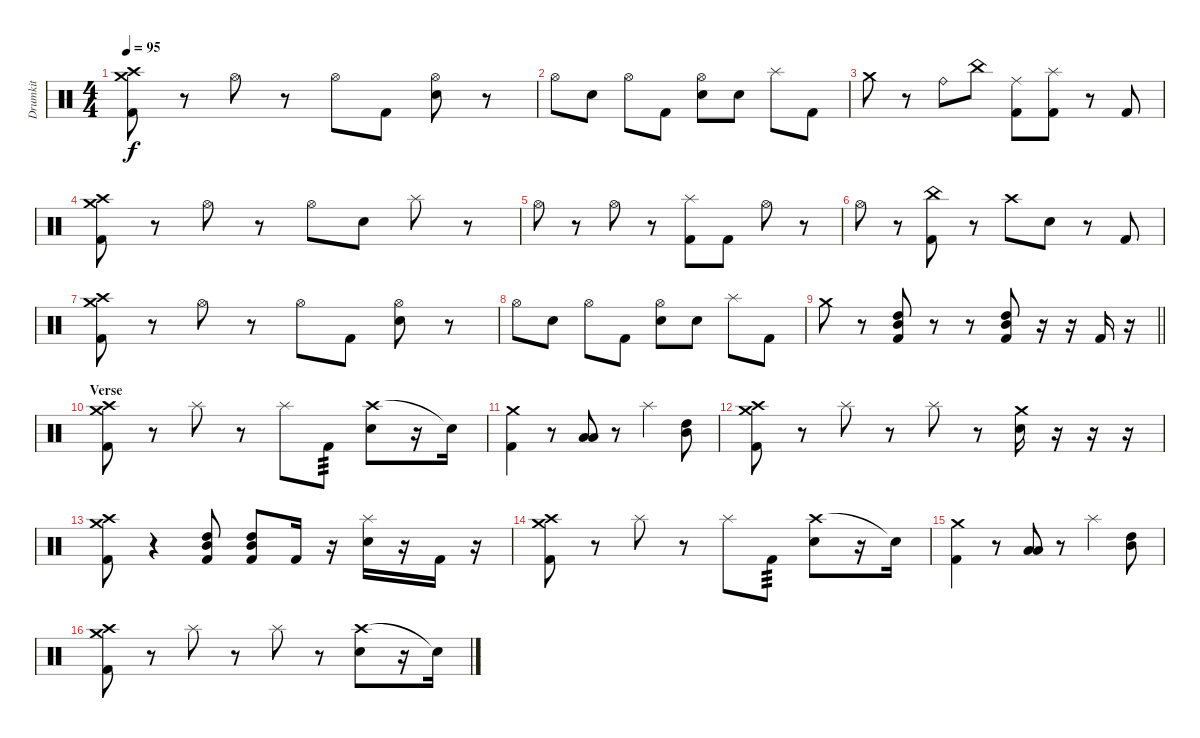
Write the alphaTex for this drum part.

\track ("Drumkit" "Drumkit") {instrument percussion}
\staff {score}
\articulation defaults
\ts (4 4)
\tempo 95
\clef neutral
\ks c
("Crash high (hit)" "Crash medium (hit)" "Kick (hit) 2").8{dy f} r.8 "Hi-Hat (open)".8 r.8 "Hi-Hat (open)".8 "Kick (hit) 2".8 ("Hi-Hat (open)" "Electric Snare (hit)").8 r.8 |
"Hi-Hat (open)".8 "Electric Snare (hit)".8 "Hi-Hat (open)".8 "Kick (hit) 2".8 ("Hi-Hat (open)" "Electric Snare (hit)").8 "Electric Snare (hit)".8 "Splash (hit)".8 "Kick (hit) 2".8 |
"Crash medium (hit)".8 r.8 "Ride (bell)".8 "China (hit)".8 ("Ride (middle)" "Kick (hit) 2").8 ("Splash (hit)" "Kick (hit) 2").8 r.8 "Kick (hit) 2".8 |
("Crash medium (hit)" "Crash high (hit)" "Kick (hit) 2").8 r.8 "Hi-Hat (open)".8 r.8 "Hi-Hat (open)".8 "Electric Snare (hit)".8 "Splash (hit)".8 r.8 |
"Hi-Hat (open)".8 r.8 "Hi-Hat (open)".8 r.8 ("Splash (hit)" "Kick (hit) 2").8 "Kick (hit) 2".8 "Hi-Hat (open)".8 r.8 |
"Hi-Hat (open)".8 r.8 ("China (hit)" "Kick (hit) 2").8 r.8 "Crash high (hit)".8 "Electric Snare (hit)".8 r.8 "Kick (hit) 2".8 |
("Crash high (hit)" "Crash medium (hit)" "Kick (hit) 2").8 r.8 "Hi-Hat (open)".8 r.8 "Hi-Hat (open)".8 "Kick (hit) 2".8 ("Hi-Hat (open)" "Electric Snare (hit)").8 r.8 |
"Hi-Hat (open)".8 "Electric Snare (hit)".8 "Hi-Hat (open)".8 "Kick (hit) 2".8 ("Hi-Hat (open)" "Electric Snare (hit)").8 "Electric Snare (hit)".8 "Splash (hit)".8 "Kick (hit) 2".8 |
\barLineRight lightlight "Crash medium (hit)".8
r.8 ("Mid Tom (hit)" "High Tom (hit)" "Kick (hit) 2").8 r.8 r.8 ("High Tom (hit)" "Mid Tom (hit)" "Kick (hit) 2").8 r.16 r.16 "Kick (hit) 2".16 r.16 |
\section ("" "Verse")
("Crash high (hit)" "Crash medium (hit)" "Kick (hit) 2").8 r.8 "Splash (hit)".8 r.8 "Splash (hit)".8 "Kick (hit) 2".8{tp 3} ("Crash high (hit)" "Electric Snare (hit)").8 r.16 "Snare (hit)"{t}.16 |
("Crash medium (hit)" "Kick (hit) 2").4 r.8 ("Low Tom (hit)" "Low Floor Tom (hit)").8 r.8 "Splash (hit)".4 ("Mid Tom (hit)" "High Tom (hit)").8 |
("Crash high (hit)" "Crash medium (hit)" "Kick (hit) 2").8 r.8 "Splash (hit)".8 r.8 "Splash (hit)".8 r.8 ("Crash medium (hit)" "Electric Snare (hit)").16 r.16 r.16 r.16 |
("Crash medium (hit)" "Crash high (hit)" "Kick (hit) 2").8 r.4 ("High Tom (hit)" "Mid Tom (hit)" "Kick (hit) 2").8 ("High Tom (hit)" "Mid Tom (hit)" "Kick (hit) 2").8 "Kick (hit) 2".16 r.16 ("Splash (hit)" "Electric Snare (hit)").16 r.16 "Kick (hit) 2".16 r.16 |
("Crash high (hit)" "Crash medium (hit)" "Kick (hit) 2").8 r.8 "Splash (hit)".8 r.8 "Splash (hit)".8 "Kick (hit) 2".8{tp 3} ("Crash high (hit)" "Electric Snare (hit)").8 r.16 "Snare (hit)"{t}.16 |
("Crash medium (hit)" "Kick (hit) 2").4 r.8 ("Low Tom (hit)" "Low Floor Tom (hit)").8 r.8 "Splash (hit)".4 ("Mid Tom (hit)" "High Tom (hit)").8 |
("Crash high (hit)" "Crash medium (hit)" "Kick (hit) 2").8 r.8 "Splash (hit)".8 r.8 "Splash (hit)".8 r.8 ("Crash high (hit)" "Electric Snare (hit)").8 r.16 "Snare (hit)"{t}.16
